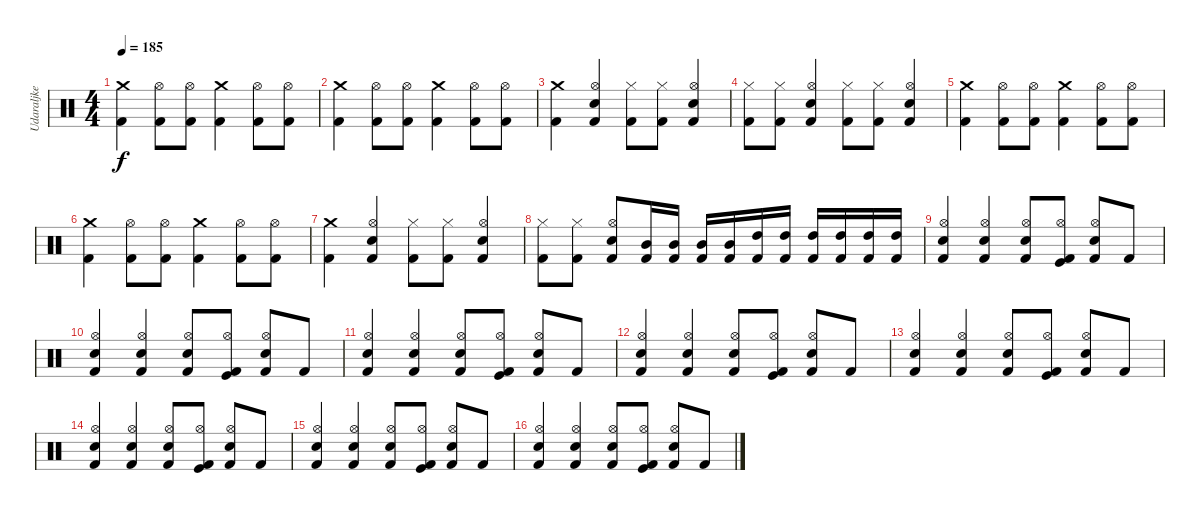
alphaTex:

\track ("Udaraljke" "Udaraljke") {instrument percussion}
\staff {score}
\articulation defaults
\ts (4 4)
\tempo 185
\clef neutral
\ks c
("Kick (hit) 2" "Crash medium (hit)").4{dy f} ("Kick (hit) 2" "Hi-Hat (open)").8 ("Kick (hit) 2" "Hi-Hat (open)").8 ("Kick (hit) 2" "Crash medium (hit)").4 ("Kick (hit) 2" "Hi-Hat (open)").8 ("Kick (hit) 2" "Hi-Hat (open)").8 |
("Kick (hit) 2" "Crash medium (hit)").4 ("Kick (hit) 2" "Hi-Hat (open)").8 ("Kick (hit) 2" "Hi-Hat (open)").8 ("Kick (hit) 2" "Crash medium (hit)").4 ("Kick (hit) 2" "Hi-Hat (open)").8 ("Kick (hit) 2" "Hi-Hat (open)").8 |
("Kick (hit) 2" "Crash medium (hit)").4 ("Kick (hit) 2" "Electric Snare (hit)" "Hi-Hat (open)").4 ("Kick (hit) 2" "Hi-Hat (closed)").8 ("Kick (hit) 2" "Hi-Hat (closed)").8 ("Kick (hit) 2" "Electric Snare (hit)" "Hi-Hat (open)").4 |
("Kick (hit) 2" "Hi-Hat (closed)").8 ("Kick (hit) 2" "Hi-Hat (closed)").8 ("Kick (hit) 2" "Electric Snare (hit)" "Hi-Hat (open)").4 ("Kick (hit) 2" "Hi-Hat (closed)").8 ("Kick (hit) 2" "Hi-Hat (closed)").8 ("Kick (hit) 2" "Electric Snare (hit)" "Hi-Hat (open)").4 |
("Kick (hit) 2" "Crash medium (hit)").4 ("Kick (hit) 2" "Hi-Hat (open)").8 ("Kick (hit) 2" "Hi-Hat (open)").8 ("Kick (hit) 2" "Crash medium (hit)").4 ("Kick (hit) 2" "Hi-Hat (open)").8 ("Kick (hit) 2" "Hi-Hat (open)").8 |
("Kick (hit) 2" "Crash medium (hit)").4 ("Kick (hit) 2" "Hi-Hat (open)").8 ("Kick (hit) 2" "Hi-Hat (open)").8 ("Kick (hit) 2" "Crash medium (hit)").4 ("Kick (hit) 2" "Hi-Hat (open)").8 ("Kick (hit) 2" "Hi-Hat (open)").8 |
("Kick (hit) 2" "Crash medium (hit)").4 ("Kick (hit) 2" "Electric Snare (hit)" "Hi-Hat (open)").4 ("Kick (hit) 2" "Hi-Hat (closed)").8 ("Kick (hit) 2" "Hi-Hat (closed)").8 ("Kick (hit) 2" "Electric Snare (hit)" "Hi-Hat (open)").4 |
("Kick (hit) 2" "Hi-Hat (closed)").8 ("Kick (hit) 2" "Hi-Hat (closed)").8 ("Kick (hit) 2" "Electric Snare (hit)" "Hi-Hat (open)").8 ("Kick (hit) 2" "Mid Tom (hit)").16 ("Kick (hit) 2" "Mid Tom (hit)").16 ("Kick (hit) 2" "Mid Tom (hit)").16 ("Kick (hit) 2" "Mid Tom (hit)").16 ("Kick (hit) 2" "High Tom (hit)").16 ("Kick (hit) 2" "High Tom (hit)").16 ("Kick (hit) 2" "High Tom (hit)").16 ("Kick (hit) 2" "High Tom (hit)").16 ("Kick (hit) 2" "High Tom (hit)").16 ("Kick (hit) 2" "High Tom (hit)").16 |
("Hi-Hat (open)" "Electric Snare (hit)" "Kick (hit) 2").4 ("Hi-Hat (open)" "Electric Snare (hit)" "Kick (hit) 2").4 ("Hi-Hat (open)" "Electric Snare (hit)" "Kick (hit) 2").8 ("Hi-Hat (open)" "Kick (hit)" "Kick (hit) 2").8 ("Hi-Hat (open)" "Electric Snare (hit)" "Kick (hit) 2").8 "Kick (hit) 2".8 |
("Hi-Hat (open)" "Electric Snare (hit)" "Kick (hit) 2").4 ("Hi-Hat (open)" "Electric Snare (hit)" "Kick (hit) 2").4 ("Hi-Hat (open)" "Electric Snare (hit)" "Kick (hit) 2").8 ("Hi-Hat (open)" "Kick (hit)" "Kick (hit) 2").8 ("Hi-Hat (open)" "Electric Snare (hit)" "Kick (hit) 2").8 "Kick (hit) 2".8 |
("Hi-Hat (open)" "Electric Snare (hit)" "Kick (hit) 2").4 ("Hi-Hat (open)" "Electric Snare (hit)" "Kick (hit) 2").4 ("Hi-Hat (open)" "Electric Snare (hit)" "Kick (hit) 2").8 ("Hi-Hat (open)" "Kick (hit)" "Kick (hit) 2").8 ("Hi-Hat (open)" "Electric Snare (hit)" "Kick (hit) 2").8 "Kick (hit) 2".8 |
("Hi-Hat (open)" "Electric Snare (hit)" "Kick (hit) 2").4 ("Hi-Hat (open)" "Electric Snare (hit)" "Kick (hit) 2").4 ("Hi-Hat (open)" "Electric Snare (hit)" "Kick (hit) 2").8 ("Hi-Hat (open)" "Kick (hit)" "Kick (hit) 2").8 ("Hi-Hat (open)" "Electric Snare (hit)" "Kick (hit) 2").8 "Kick (hit) 2".8 |
("Hi-Hat (open)" "Electric Snare (hit)" "Kick (hit) 2").4 ("Hi-Hat (open)" "Electric Snare (hit)" "Kick (hit) 2").4 ("Hi-Hat (open)" "Electric Snare (hit)" "Kick (hit) 2").8 ("Hi-Hat (open)" "Kick (hit)" "Kick (hit) 2").8 ("Hi-Hat (open)" "Electric Snare (hit)" "Kick (hit) 2").8 "Kick (hit) 2".8 |
("Hi-Hat (open)" "Electric Snare (hit)" "Kick (hit) 2").4 ("Hi-Hat (open)" "Electric Snare (hit)" "Kick (hit) 2").4 ("Hi-Hat (open)" "Electric Snare (hit)" "Kick (hit) 2").8 ("Hi-Hat (open)" "Kick (hit)" "Kick (hit) 2").8 ("Hi-Hat (open)" "Electric Snare (hit)" "Kick (hit) 2").8 "Kick (hit) 2".8 |
("Hi-Hat (open)" "Electric Snare (hit)" "Kick (hit) 2").4 ("Hi-Hat (open)" "Electric Snare (hit)" "Kick (hit) 2").4 ("Hi-Hat (open)" "Electric Snare (hit)" "Kick (hit) 2").8 ("Hi-Hat (open)" "Kick (hit)" "Kick (hit) 2").8 ("Hi-Hat (open)" "Electric Snare (hit)" "Kick (hit) 2").8 "Kick (hit) 2".8 |
("Hi-Hat (open)" "Electric Snare (hit)" "Kick (hit) 2").4 ("Hi-Hat (open)" "Electric Snare (hit)" "Kick (hit) 2").4 ("Hi-Hat (open)" "Electric Snare (hit)" "Kick (hit) 2").8 ("Hi-Hat (open)" "Kick (hit)" "Kick (hit) 2").8 ("Hi-Hat (open)" "Electric Snare (hit)" "Kick (hit) 2").8 "Kick (hit) 2".8
